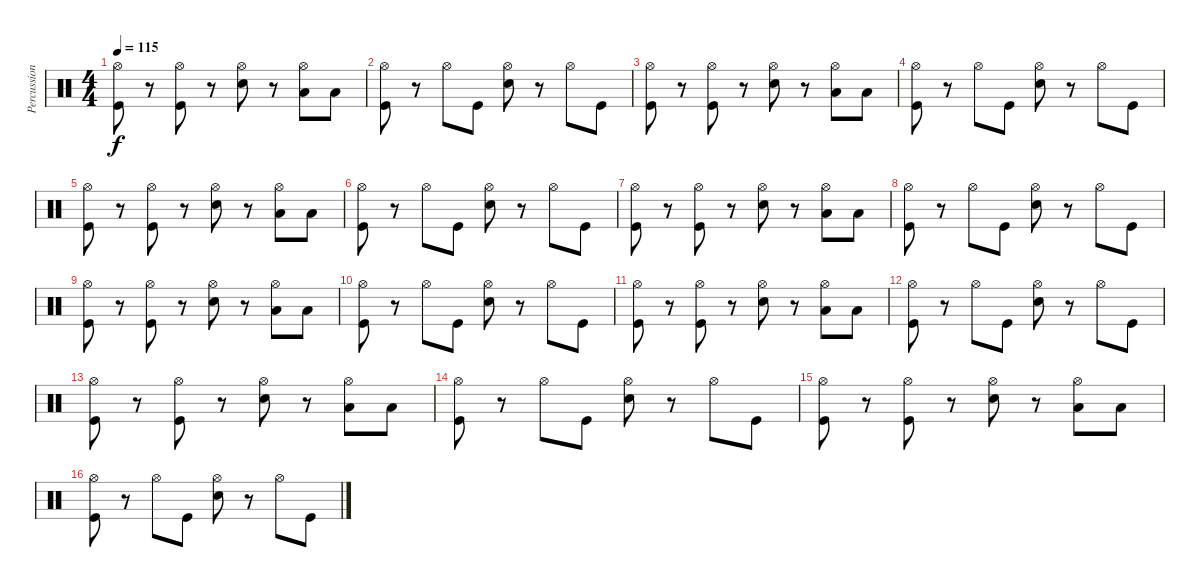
\track ("Percussion" "Percussion") {instrument percussion}
\staff {score}
\articulation defaults
\ts (4 4)
\tempo 115
\clef neutral
\ks c
("Hi-Hat (open)" "Kick (hit)").8{dy f} r.8 ("Hi-Hat (open)" "Kick (hit)").8 r.8 ("Hi-Hat (open)" "Snare (hit) 2").8 r.8 ("Hi-Hat (open)" "Low Tom (hit)").8 "Low Tom (hit)".8 |
("Hi-Hat (open)" "Kick (hit)").8 r.8 "Hi-Hat (open)".8 "Kick (hit)".8 ("Hi-Hat (open)" "Snare (hit) 2").8 r.8 "Hi-Hat (open)".8 "Kick (hit)".8 |
("Hi-Hat (open)" "Kick (hit)").8 r.8 ("Hi-Hat (open)" "Kick (hit)").8 r.8 ("Hi-Hat (open)" "Snare (hit) 2").8 r.8 ("Hi-Hat (open)" "Low Tom (hit)").8 "Low Tom (hit)".8 |
("Hi-Hat (open)" "Kick (hit)").8 r.8 "Hi-Hat (open)".8 "Kick (hit)".8 ("Hi-Hat (open)" "Snare (hit) 2").8 r.8 "Hi-Hat (open)".8 "Kick (hit)".8 |
("Hi-Hat (open)" "Kick (hit)").8 r.8 ("Hi-Hat (open)" "Kick (hit)").8 r.8 ("Hi-Hat (open)" "Snare (hit) 2").8 r.8 ("Hi-Hat (open)" "Low Tom (hit)").8 "Low Tom (hit)".8 |
("Hi-Hat (open)" "Kick (hit)").8 r.8 "Hi-Hat (open)".8 "Kick (hit)".8 ("Hi-Hat (open)" "Snare (hit) 2").8 r.8 "Hi-Hat (open)".8 "Kick (hit)".8 |
("Hi-Hat (open)" "Kick (hit)").8 r.8 ("Hi-Hat (open)" "Kick (hit)").8 r.8 ("Hi-Hat (open)" "Snare (hit) 2").8 r.8 ("Hi-Hat (open)" "Low Tom (hit)").8 "Low Tom (hit)".8 |
("Hi-Hat (open)" "Kick (hit)").8 r.8 "Hi-Hat (open)".8 "Kick (hit)".8 ("Hi-Hat (open)" "Snare (hit) 2").8 r.8 "Hi-Hat (open)".8 "Kick (hit)".8 |
("Hi-Hat (open)" "Kick (hit)").8 r.8 ("Hi-Hat (open)" "Kick (hit)").8 r.8 ("Hi-Hat (open)" "Snare (hit) 2").8 r.8 ("Hi-Hat (open)" "Low Tom (hit)").8 "Low Tom (hit)".8 |
("Hi-Hat (open)" "Kick (hit)").8 r.8 "Hi-Hat (open)".8 "Kick (hit)".8 ("Hi-Hat (open)" "Snare (hit) 2").8 r.8 "Hi-Hat (open)".8 "Kick (hit)".8 |
("Hi-Hat (open)" "Kick (hit)").8 r.8 ("Hi-Hat (open)" "Kick (hit)").8 r.8 ("Hi-Hat (open)" "Snare (hit) 2").8 r.8 ("Hi-Hat (open)" "Low Tom (hit)").8 "Low Tom (hit)".8 |
("Hi-Hat (open)" "Kick (hit)").8 r.8 "Hi-Hat (open)".8 "Kick (hit)".8 ("Hi-Hat (open)" "Snare (hit) 2").8 r.8 "Hi-Hat (open)".8 "Kick (hit)".8 |
("Hi-Hat (open)" "Kick (hit)").8 r.8 ("Hi-Hat (open)" "Kick (hit)").8 r.8 ("Hi-Hat (open)" "Snare (hit) 2").8 r.8 ("Hi-Hat (open)" "Low Tom (hit)").8 "Low Tom (hit)".8 |
("Hi-Hat (open)" "Kick (hit)").8 r.8 "Hi-Hat (open)".8 "Kick (hit)".8 ("Hi-Hat (open)" "Snare (hit) 2").8 r.8 "Hi-Hat (open)".8 "Kick (hit)".8 |
("Hi-Hat (open)" "Kick (hit)").8 r.8 ("Hi-Hat (open)" "Kick (hit)").8 r.8 ("Hi-Hat (open)" "Snare (hit) 2").8 r.8 ("Hi-Hat (open)" "Low Tom (hit)").8 "Low Tom (hit)".8 |
("Hi-Hat (open)" "Kick (hit)").8 r.8 "Hi-Hat (open)".8 "Kick (hit)".8 ("Hi-Hat (open)" "Snare (hit) 2").8 r.8 "Hi-Hat (open)".8 "Kick (hit)".8
